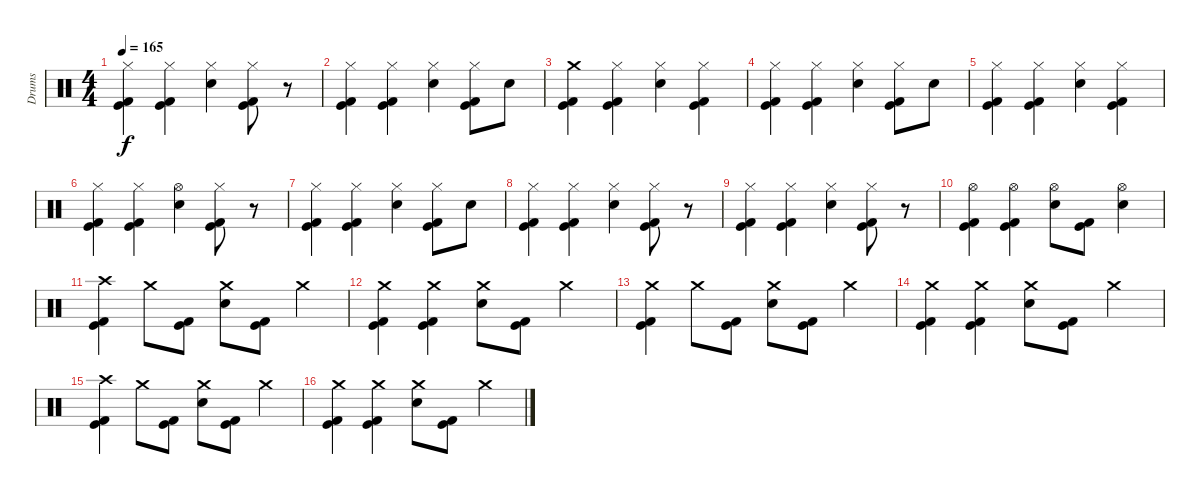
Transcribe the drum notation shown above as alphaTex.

\track ("Drums" "Drums") {instrument percussion}
\staff {score}
\articulation defaults
\ts (4 4)
\tempo 165
\clef neutral
\ks c
("Hi-Hat (closed)" "Kick (hit)" "Kick (hit) 2").4{dy f} ("Hi-Hat (closed)" "Kick (hit)" "Kick (hit) 2").4 ("Hi-Hat (closed)" "Electric Snare (hit)").4 ("Hi-Hat (closed)" "Kick (hit) 2" "Kick (hit)").8 r.8 |
("Hi-Hat (closed)" "Kick (hit)" "Kick (hit) 2").4 ("Hi-Hat (closed)" "Kick (hit)" "Kick (hit) 2").4 ("Hi-Hat (closed)" "Electric Snare (hit)").4 ("Hi-Hat (closed)" "Kick (hit) 2" "Kick (hit)").8 "Electric Snare (hit)".8 |
("Crash medium (hit)" "Kick (hit)" "Kick (hit) 2").4 ("Hi-Hat (closed)" "Kick (hit)" "Kick (hit) 2").4 ("Hi-Hat (closed)" "Electric Snare (hit)").4 ("Hi-Hat (closed)" "Kick (hit)" "Kick (hit) 2").4 |
("Hi-Hat (closed)" "Kick (hit)" "Kick (hit) 2").4 ("Hi-Hat (closed)" "Kick (hit)" "Kick (hit) 2").4 ("Hi-Hat (closed)" "Electric Snare (hit)").4 ("Hi-Hat (closed)" "Kick (hit) 2" "Kick (hit)").8 "Electric Snare (hit)".8 |
("Hi-Hat (closed)" "Kick (hit)" "Kick (hit) 2").4 ("Hi-Hat (closed)" "Kick (hit)" "Kick (hit) 2").4 ("Hi-Hat (closed)" "Electric Snare (hit)").4 ("Hi-Hat (closed)" "Kick (hit)" "Kick (hit) 2").4 |
("Hi-Hat (closed)" "Kick (hit)" "Kick (hit) 2").4 ("Hi-Hat (closed)" "Kick (hit)" "Kick (hit) 2").4 ("Hi-Hat (open)" "Electric Snare (hit)").4 ("Hi-Hat (closed)" "Kick (hit) 2" "Kick (hit)").8 r.8 |
("Hi-Hat (closed)" "Kick (hit)" "Kick (hit) 2").4 ("Hi-Hat (closed)" "Kick (hit)" "Kick (hit) 2").4 ("Hi-Hat (closed)" "Electric Snare (hit)").4 ("Hi-Hat (closed)" "Kick (hit) 2" "Kick (hit)").8 "Electric Snare (hit)".8 |
("Hi-Hat (closed)" "Kick (hit)" "Kick (hit) 2").4 ("Hi-Hat (closed)" "Kick (hit)" "Kick (hit) 2").4 ("Hi-Hat (closed)" "Electric Snare (hit)").4 ("Hi-Hat (closed)" "Kick (hit) 2" "Kick (hit)").8 r.8 |
("Hi-Hat (closed)" "Kick (hit)" "Kick (hit) 2").4 ("Hi-Hat (closed)" "Kick (hit)" "Kick (hit) 2").4 ("Hi-Hat (closed)" "Electric Snare (hit)").4 ("Hi-Hat (closed)" "Kick (hit) 2" "Kick (hit)").8 r.8 |
("Hi-Hat (open)" "Kick (hit)" "Kick (hit) 2").4 ("Hi-Hat (open)" "Kick (hit)" "Kick (hit) 2").4 ("Hi-Hat (open)" "Electric Snare (hit)").8 ("Kick (hit) 2" "Kick (hit)").8 ("Hi-Hat (open)" "Electric Snare (hit)").4 |
("Crash high (hit)" "Kick (hit) 2" "Kick (hit)").4 "Crash medium (hit)".8 ("Kick (hit)" "Kick (hit) 2").8 ("Crash medium (hit)" "Electric Snare (hit)").8 ("Kick (hit)" "Kick (hit) 2").8 "Crash medium (hit)".4 |
("Crash medium (hit)" "Kick (hit)" "Kick (hit) 2").4 ("Crash medium (hit)" "Kick (hit)" "Kick (hit) 2").4 ("Crash medium (hit)" "Electric Snare (hit)").8 ("Kick (hit)" "Kick (hit) 2").8 "Crash medium (hit)".4 |
("Crash medium (hit)" "Kick (hit) 2" "Kick (hit)").4 "Crash medium (hit)".8 ("Kick (hit)" "Kick (hit) 2").8 ("Crash medium (hit)" "Electric Snare (hit)").8 ("Kick (hit)" "Kick (hit) 2").8 "Crash medium (hit)".4 |
("Crash medium (hit)" "Kick (hit)" "Kick (hit) 2").4 ("Crash medium (hit)" "Kick (hit)" "Kick (hit) 2").4 ("Crash medium (hit)" "Electric Snare (hit)").8 ("Kick (hit)" "Kick (hit) 2").8 "Crash medium (hit)".4 |
("Crash high (hit)" "Kick (hit) 2" "Kick (hit)").4 "Crash medium (hit)".8 ("Kick (hit)" "Kick (hit) 2").8 ("Crash medium (hit)" "Electric Snare (hit)").8 ("Kick (hit)" "Kick (hit) 2").8 "Crash medium (hit)".4 |
("Crash medium (hit)" "Kick (hit)" "Kick (hit) 2").4 ("Crash medium (hit)" "Kick (hit)" "Kick (hit) 2").4 ("Crash medium (hit)" "Electric Snare (hit)").8 ("Kick (hit)" "Kick (hit) 2").8 "Crash medium (hit)".4
